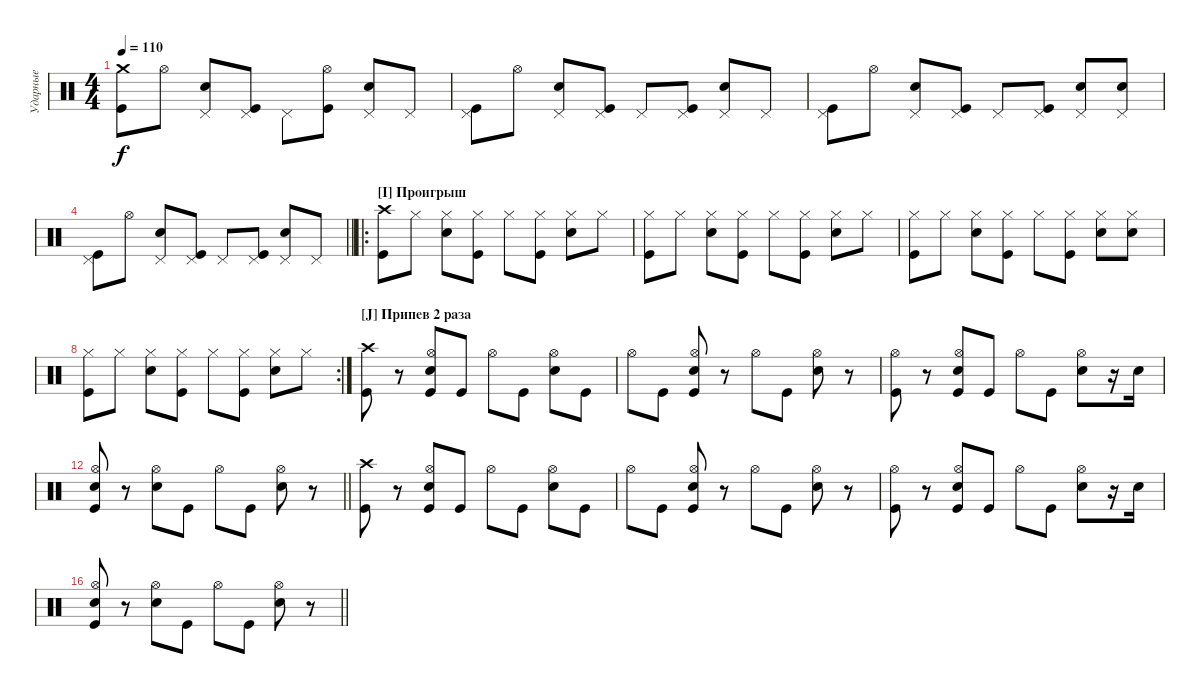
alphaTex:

\bracketExtendMode groupsimilarinstruments
\multiTrackTrackNamePolicy hidden
\firstSystemTrackNameMode fullname
\otherSystemsTrackNameMode fullname
\otherSystemsTrackNameOrientation horizontal
\defaultBarNumberDisplay FirstOfSystem
\track ("Ударные" "Drums") {multiBarRest instrument percussion}
\staff {score}
\articulation defaults
\ts (4 4)
\tempo 110
\clef neutral
\ks c
("Crash medium (hit)" "Kick (hit)").8{dy f} "Hi-Hat (open)".8 ("Pedal Hi-Hat (hit)" "Snare (hit) 2").8 ("Pedal Hi-Hat (hit)" "Kick (hit)").8 "Pedal Hi-Hat (hit)".8 ("Hi-Hat (open)" "Kick (hit)").8 ("Pedal Hi-Hat (hit)" "Snare (hit) 2").8 "Pedal Hi-Hat (hit)".8 |
("Pedal Hi-Hat (hit)" "Kick (hit)").8 "Hi-Hat (open)".8 ("Pedal Hi-Hat (hit)" "Snare (hit) 2").8 ("Pedal Hi-Hat (hit)" "Kick (hit)").8 "Pedal Hi-Hat (hit)".8 ("Pedal Hi-Hat (hit)" "Kick (hit)").8 ("Pedal Hi-Hat (hit)" "Snare (hit) 2").8 "Pedal Hi-Hat (hit)".8 |
("Pedal Hi-Hat (hit)" "Kick (hit)").8 "Hi-Hat (open)".8 ("Pedal Hi-Hat (hit)" "Snare (hit) 2").8 ("Pedal Hi-Hat (hit)" "Kick (hit)").8 "Pedal Hi-Hat (hit)".8 ("Pedal Hi-Hat (hit)" "Kick (hit)").8 ("Pedal Hi-Hat (hit)" "Snare (hit) 2").8 ("Pedal Hi-Hat (hit)" "Snare (hit) 2").8 |
\barLineRight lightlight
("Pedal Hi-Hat (hit)" "Kick (hit)").8 "Hi-Hat (open)".8 ("Pedal Hi-Hat (hit)" "Snare (hit) 2").8 ("Pedal Hi-Hat (hit)" "Kick (hit)").8 "Pedal Hi-Hat (hit)".8 ("Pedal Hi-Hat (hit)" "Kick (hit)").8 ("Pedal Hi-Hat (hit)" "Snare (hit) 2").8 "Pedal Hi-Hat (hit)".8 |
\ro
\section ("I" "Проигрыш")
("Crash high (hit)" "Kick (hit)").8 "Hi-Hat (closed)".8 ("Hi-Hat (closed)" "Snare (hit) 2").8 ("Hi-Hat (closed)" "Kick (hit)").8 "Hi-Hat (closed)".8 ("Hi-Hat (closed)" "Kick (hit)").8 ("Hi-Hat (closed)" "Snare (hit) 2").8 "Hi-Hat (closed)".8 |
("Hi-Hat (closed)" "Kick (hit)").8 "Hi-Hat (closed)".8 ("Hi-Hat (closed)" "Snare (hit) 2").8 ("Hi-Hat (closed)" "Kick (hit)").8 "Hi-Hat (closed)".8 ("Hi-Hat (closed)" "Kick (hit)").8 ("Hi-Hat (closed)" "Snare (hit) 2").8 "Hi-Hat (closed)".8 |
("Hi-Hat (closed)" "Kick (hit)").8 "Hi-Hat (closed)".8 ("Hi-Hat (closed)" "Snare (hit) 2").8 ("Hi-Hat (closed)" "Kick (hit)").8 "Hi-Hat (closed)".8 ("Hi-Hat (closed)" "Kick (hit)").8 ("Hi-Hat (closed)" "Snare (hit) 2").8 ("Hi-Hat (closed)" "Snare (hit) 2").8 |
\rc 2
("Hi-Hat (closed)" "Kick (hit)").8 "Hi-Hat (closed)".8 ("Hi-Hat (closed)" "Snare (hit) 2").8 ("Hi-Hat (closed)" "Kick (hit)").8 "Hi-Hat (closed)".8 ("Hi-Hat (closed)" "Kick (hit)").8 ("Hi-Hat (closed)" "Snare (hit) 2").8 "Hi-Hat (closed)".8 |
\section ("J" "Припев 2 раза")
("Crash high (hit)" "Kick (hit)").8 r.8 ("Hi-Hat (open)" "Snare (hit) 2" "Kick (hit)").8 "Kick (hit)".8 "Hi-Hat (open)".8 "Kick (hit)".8 ("Hi-Hat (open)" "Snare (hit) 2").8 "Kick (hit)".8 |
"Hi-Hat (open)".8 "Kick (hit)".8 ("Hi-Hat (open)" "Snare (hit) 2" "Kick (hit)").8 r.8 "Hi-Hat (open)".8 "Kick (hit)".8 ("Hi-Hat (open)" "Snare (hit) 2").8 r.8 |
("Hi-Hat (open)" "Kick (hit)").8 r.8 ("Hi-Hat (open)" "Snare (hit) 2" "Kick (hit)").8 "Kick (hit)".8 "Hi-Hat (open)".8 "Kick (hit)".8 ("Hi-Hat (open)" "Snare (hit) 2").8 r.16 "Snare (hit) 2".16 |
\barLineRight lightlight
("Hi-Hat (open)" "Snare (hit) 2" "Kick (hit)").8 r.8 ("Hi-Hat (open)" "Snare (hit) 2").8 "Kick (hit)".8 "Hi-Hat (open)".8 "Kick (hit)".8 ("Hi-Hat (open)" "Snare (hit) 2").8 r.8 |
("Crash high (hit)" "Kick (hit)").8 r.8 ("Hi-Hat (open)" "Snare (hit) 2" "Kick (hit)").8 "Kick (hit)".8 "Hi-Hat (open)".8 "Kick (hit)".8 ("Hi-Hat (open)" "Snare (hit) 2").8 "Kick (hit)".8 |
"Hi-Hat (open)".8 "Kick (hit)".8 ("Hi-Hat (open)" "Snare (hit) 2" "Kick (hit)").8 r.8 "Hi-Hat (open)".8 "Kick (hit)".8 ("Hi-Hat (open)" "Snare (hit) 2").8 r.8 |
("Hi-Hat (open)" "Kick (hit)").8 r.8 ("Hi-Hat (open)" "Snare (hit) 2" "Kick (hit)").8 "Kick (hit)".8 "Hi-Hat (open)".8 "Kick (hit)".8 ("Hi-Hat (open)" "Snare (hit) 2").8 r.16 "Snare (hit) 2".16 |
\barLineRight lightlight
("Hi-Hat (open)" "Snare (hit) 2" "Kick (hit)").8 r.8 ("Hi-Hat (open)" "Snare (hit) 2").8 "Kick (hit)".8 "Hi-Hat (open)".8 "Kick (hit)".8 ("Hi-Hat (open)" "Snare (hit) 2").8 r.8
